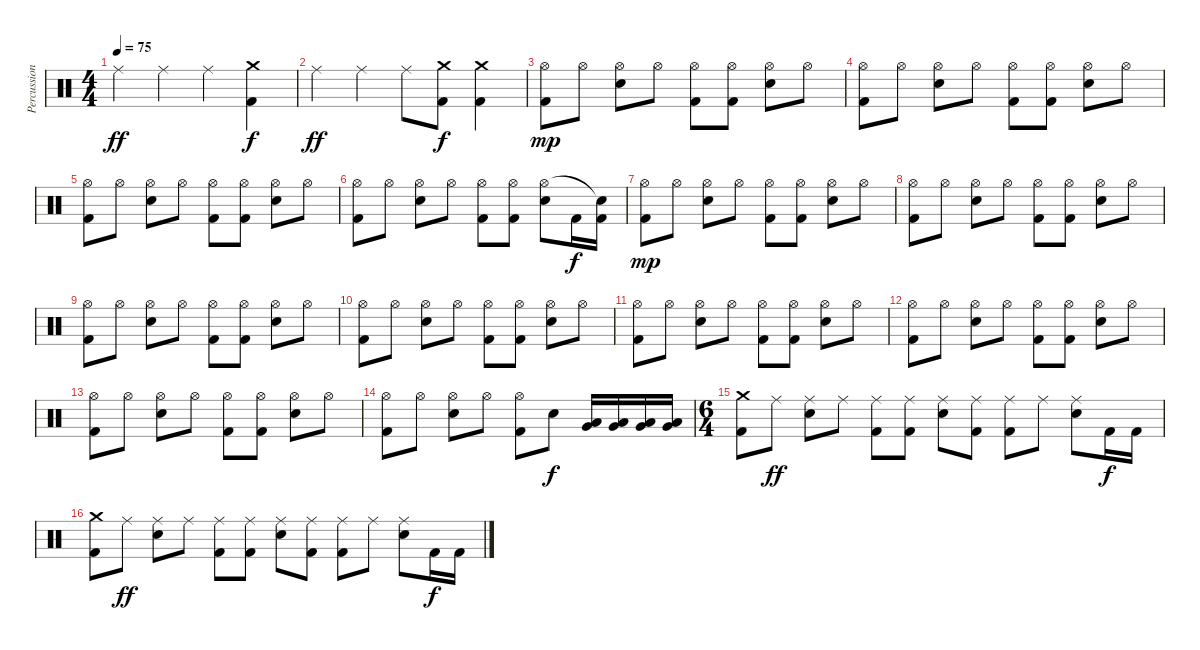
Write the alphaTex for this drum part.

\track ("Percussioni" "Percussion") {instrument percussion}
\staff {score}
\articulation defaults
\ts (4 4)
\tempo 75
\clef neutral
\ks c "Ride (middle)".4{dy ff} "Ride (middle)".4 "Ride (middle)".4
("Kick (hit) 2" "Crash medium (hit)").4{dy f} |
"Ride (middle)".4{dy ff} "Ride (middle)".4 "Ride (middle)".8 ("Kick (hit) 2" "Crash medium (hit)").8{dy f} ("Kick (hit) 2" "Crash medium (hit)").4 |
("Kick (hit) 2" "Hi-Hat (open)").8{dy mp} "Hi-Hat (open)".8 ("Snare (hit) 2" "Hi-Hat (open)").8 "Hi-Hat (open)".8 ("Kick (hit) 2" "Hi-Hat (open)").8 ("Kick (hit) 2" "Hi-Hat (open)").8 ("Snare (hit) 2" "Hi-Hat (open)").8 "Hi-Hat (open)".8 |
("Kick (hit) 2" "Hi-Hat (open)").8 "Hi-Hat (open)".8 ("Snare (hit) 2" "Hi-Hat (open)").8 "Hi-Hat (open)".8 ("Kick (hit) 2" "Hi-Hat (open)").8 ("Kick (hit) 2" "Hi-Hat (open)").8 ("Snare (hit) 2" "Hi-Hat (open)").8 "Hi-Hat (open)".8 |
("Kick (hit) 2" "Hi-Hat (open)").8 "Hi-Hat (open)".8 ("Snare (hit) 2" "Hi-Hat (open)").8 "Hi-Hat (open)".8 ("Kick (hit) 2" "Hi-Hat (open)").8 ("Kick (hit) 2" "Hi-Hat (open)").8 ("Snare (hit) 2" "Hi-Hat (open)").8 "Hi-Hat (open)".8 |
("Kick (hit) 2" "Hi-Hat (open)").8 "Hi-Hat (open)".8 ("Snare (hit) 2" "Hi-Hat (open)").8 "Hi-Hat (open)".8 ("Kick (hit) 2" "Hi-Hat (open)").8 ("Kick (hit) 2" "Hi-Hat (open)").8 ("Snare (hit) 2" "Hi-Hat (open)").8 "Kick (hit) 2".16{dy f} ("Kick (hit) 2" "Snare (hit)"{t}).16 |
("Kick (hit) 2" "Hi-Hat (open)").8{dy mp} "Hi-Hat (open)".8 ("Snare (hit) 2" "Hi-Hat (open)").8 "Hi-Hat (open)".8 ("Kick (hit) 2" "Hi-Hat (open)").8 ("Kick (hit) 2" "Hi-Hat (open)").8 ("Snare (hit) 2" "Hi-Hat (open)").8 "Hi-Hat (open)".8 |
("Kick (hit) 2" "Hi-Hat (open)").8 "Hi-Hat (open)".8 ("Snare (hit) 2" "Hi-Hat (open)").8 "Hi-Hat (open)".8 ("Kick (hit) 2" "Hi-Hat (open)").8 ("Kick (hit) 2" "Hi-Hat (open)").8 ("Snare (hit) 2" "Hi-Hat (open)").8 "Hi-Hat (open)".8 |
("Kick (hit) 2" "Hi-Hat (open)").8 "Hi-Hat (open)".8 ("Snare (hit) 2" "Hi-Hat (open)").8 "Hi-Hat (open)".8 ("Kick (hit) 2" "Hi-Hat (open)").8 ("Kick (hit) 2" "Hi-Hat (open)").8 ("Snare (hit) 2" "Hi-Hat (open)").8 "Hi-Hat (open)".8 |
("Kick (hit) 2" "Hi-Hat (open)").8 "Hi-Hat (open)".8 ("Snare (hit) 2" "Hi-Hat (open)").8 "Hi-Hat (open)".8 ("Kick (hit) 2" "Hi-Hat (open)").8 ("Kick (hit) 2" "Hi-Hat (open)").8 ("Snare (hit) 2" "Hi-Hat (open)").8 "Hi-Hat (open)".8 |
("Kick (hit) 2" "Hi-Hat (open)").8 "Hi-Hat (open)".8 ("Snare (hit) 2" "Hi-Hat (open)").8 "Hi-Hat (open)".8 ("Kick (hit) 2" "Hi-Hat (open)").8 ("Kick (hit) 2" "Hi-Hat (open)").8 ("Snare (hit) 2" "Hi-Hat (open)").8 "Hi-Hat (open)".8 |
("Kick (hit) 2" "Hi-Hat (open)").8 "Hi-Hat (open)".8 ("Snare (hit) 2" "Hi-Hat (open)").8 "Hi-Hat (open)".8 ("Kick (hit) 2" "Hi-Hat (open)").8 ("Kick (hit) 2" "Hi-Hat (open)").8 ("Snare (hit) 2" "Hi-Hat (open)").8 "Hi-Hat (open)".8 |
("Kick (hit) 2" "Hi-Hat (open)").8 "Hi-Hat (open)".8 ("Snare (hit) 2" "Hi-Hat (open)").8 "Hi-Hat (open)".8 ("Kick (hit) 2" "Hi-Hat (open)").8 ("Kick (hit) 2" "Hi-Hat (open)").8 ("Snare (hit) 2" "Hi-Hat (open)").8 "Hi-Hat (open)".8 |
("Kick (hit) 2" "Hi-Hat (open)").8 "Hi-Hat (open)".8 ("Snare (hit) 2" "Hi-Hat (open)").8 "Hi-Hat (open)".8 ("Kick (hit) 2" "Hi-Hat (open)").8 "Snare (hit) 2".8{dy f} ("Very Low Tom (hit)" "Low Tom (hit)").16 ("Very Low Tom (hit)" "Low Tom (hit)").16 ("Very Low Tom (hit)" "Low Tom (hit)").16 ("Very Low Tom (hit)" "Low Tom (hit)").16 |
\ts (6 4)
("Kick (hit) 2" "Crash medium (hit)").8 "Ride (middle)".8{dy ff} ("Snare (hit) 2" "Ride (middle)").8 "Ride (middle)".8 ("Kick (hit) 2" "Ride (middle)").8 ("Kick (hit) 2" "Ride (middle)").8 ("Snare (hit) 2" "Ride (middle)").8 ("Kick (hit) 2" "Ride (middle)").8 ("Kick (hit) 2" "Ride (middle)").8 "Ride (middle)".8 ("Snare (hit) 2" "Ride (middle)").8 "Kick (hit) 2".16{dy f} "Kick (hit) 2".16 |
("Kick (hit) 2" "Crash medium (hit)").8 "Ride (middle)".8{dy ff} ("Snare (hit) 2" "Ride (middle)").8 "Ride (middle)".8 ("Kick (hit) 2" "Ride (middle)").8 ("Kick (hit) 2" "Ride (middle)").8 ("Snare (hit) 2" "Ride (middle)").8 ("Kick (hit) 2" "Ride (middle)").8 ("Kick (hit) 2" "Ride (middle)").8 "Ride (middle)".8 ("Snare (hit) 2" "Ride (middle)").8 "Kick (hit) 2".16{dy f} "Kick (hit) 2".16
